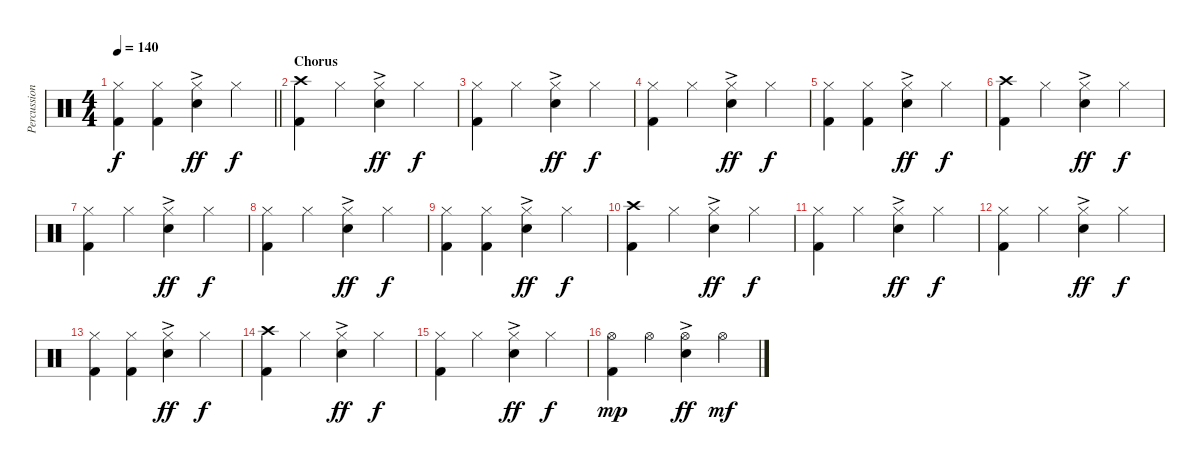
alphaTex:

\track ("Percussion" "Percussion") {instrument percussion}
\staff {score}
\articulation defaults
\ts (4 4)
\tempo 140
\clef neutral
\barLineRight lightlight
\ks c
("Hi-Hat (closed)" "Kick (hit) 2").4{dy f} ("Hi-Hat (closed)" "Kick (hit) 2").4 ("Hi-Hat (closed)" "Electric Snare (hit)"{ac}).4{dy ff} "Hi-Hat (closed)".4{dy f} |
\section ("" "Chorus")
("Crash high (hit)" "Kick (hit) 2").4 "Hi-Hat (closed)".4 ("Hi-Hat (closed)" "Electric Snare (hit)"{ac}).4{dy ff} "Hi-Hat (closed)".4{dy f} |
("Hi-Hat (closed)" "Kick (hit) 2").4 "Hi-Hat (closed)".4 ("Hi-Hat (closed)" "Electric Snare (hit)"{ac}).4{dy ff} "Hi-Hat (closed)".4{dy f} |
("Hi-Hat (closed)" "Kick (hit) 2").4 "Hi-Hat (closed)".4 ("Hi-Hat (closed)" "Electric Snare (hit)"{ac}).4{dy ff} "Hi-Hat (closed)".4{dy f} |
("Hi-Hat (closed)" "Kick (hit) 2").4 ("Hi-Hat (closed)" "Kick (hit) 2").4 ("Hi-Hat (closed)" "Electric Snare (hit)"{ac}).4{dy ff} "Hi-Hat (closed)".4{dy f} |
("Crash high (hit)" "Kick (hit) 2").4 "Hi-Hat (closed)".4 ("Hi-Hat (closed)" "Electric Snare (hit)"{ac}).4{dy ff} "Hi-Hat (closed)".4{dy f} |
("Hi-Hat (closed)" "Kick (hit) 2").4 "Hi-Hat (closed)".4 ("Hi-Hat (closed)" "Electric Snare (hit)"{ac}).4{dy ff} "Hi-Hat (closed)".4{dy f} |
("Hi-Hat (closed)" "Kick (hit) 2").4 "Hi-Hat (closed)".4 ("Hi-Hat (closed)" "Electric Snare (hit)"{ac}).4{dy ff} "Hi-Hat (closed)".4{dy f} |
("Hi-Hat (closed)" "Kick (hit) 2").4 ("Hi-Hat (closed)" "Kick (hit) 2").4 ("Hi-Hat (closed)" "Electric Snare (hit)"{ac}).4{dy ff} "Hi-Hat (closed)".4{dy f} |
("Crash high (hit)" "Kick (hit) 2").4 "Hi-Hat (closed)".4 ("Hi-Hat (closed)" "Electric Snare (hit)"{ac}).4{dy ff} "Hi-Hat (closed)".4{dy f} |
("Hi-Hat (closed)" "Kick (hit) 2").4 "Hi-Hat (closed)".4 ("Hi-Hat (closed)" "Electric Snare (hit)"{ac}).4{dy ff} "Hi-Hat (closed)".4{dy f} |
("Hi-Hat (closed)" "Kick (hit) 2").4 "Hi-Hat (closed)".4 ("Hi-Hat (closed)" "Electric Snare (hit)"{ac}).4{dy ff} "Hi-Hat (closed)".4{dy f} |
("Hi-Hat (closed)" "Kick (hit) 2").4 ("Hi-Hat (closed)" "Kick (hit) 2").4 ("Hi-Hat (closed)" "Electric Snare (hit)"{ac}).4{dy ff} "Hi-Hat (closed)".4{dy f} |
("Crash high (hit)" "Kick (hit) 2").4 "Hi-Hat (closed)".4 ("Hi-Hat (closed)" "Electric Snare (hit)"{ac}).4{dy ff} "Hi-Hat (closed)".4{dy f} |
("Hi-Hat (closed)" "Kick (hit) 2").4 "Hi-Hat (closed)".4 ("Hi-Hat (closed)" "Electric Snare (hit)"{ac}).4{dy ff} "Hi-Hat (closed)".4{dy f} |
("Hi-Hat (open)" "Kick (hit) 2").4{dy mp} "Hi-Hat (open)".4 ("Hi-Hat (open)" "Electric Snare (hit)"{ac}).4{dy ff} "Hi-Hat (open)".4{dy mf}
